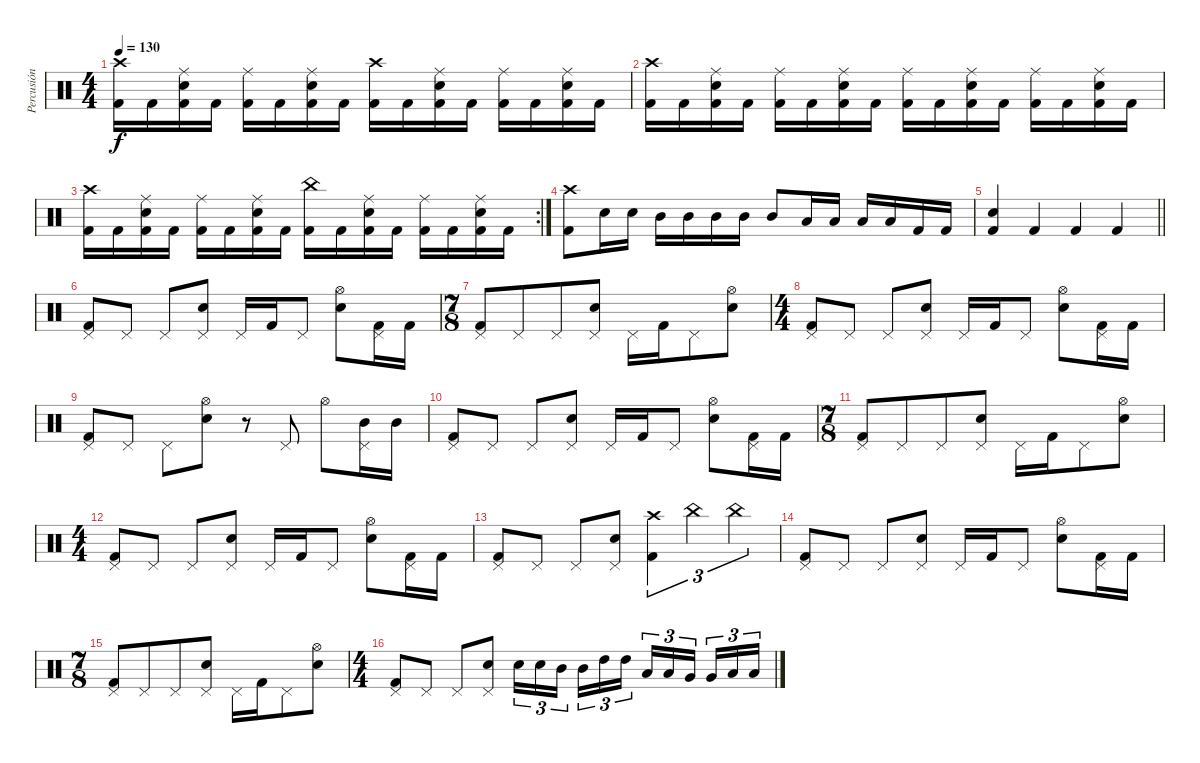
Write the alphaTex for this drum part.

\track ("Percusión" "Percusión") {instrument percussion}
\staff {score}
\articulation defaults
\ts (4 4)
\tempo 130
\clef neutral
\ks c
("Crash high (hit)" "Kick (hit) 2").16{dy f} "Kick (hit) 2".16 ("Ride (middle)" "Snare (hit) 2" "Kick (hit) 2").16 "Kick (hit) 2".16 ("Ride (middle)" "Kick (hit) 2").16 "Kick (hit) 2".16 ("Ride (middle)" "Snare (hit) 2" "Kick (hit) 2").16 "Kick (hit) 2".16 ("Crash high (hit)" "Kick (hit) 2").16 "Kick (hit) 2".16 ("Ride (middle)" "Snare (hit) 2" "Kick (hit) 2").16 "Kick (hit) 2".16 ("Ride (middle)" "Kick (hit) 2").16 "Kick (hit) 2".16 ("Ride (middle)" "Snare (hit) 2" "Kick (hit) 2").16 "Kick (hit) 2".16 |
("Crash high (hit)" "Kick (hit) 2").16 "Kick (hit) 2".16 ("Ride (middle)" "Snare (hit) 2" "Kick (hit) 2").16 "Kick (hit) 2".16 ("Ride (middle)" "Kick (hit) 2").16 "Kick (hit) 2".16 ("Ride (middle)" "Snare (hit) 2" "Kick (hit) 2").16 "Kick (hit) 2".16 ("Ride (middle)" "Kick (hit) 2").16 "Kick (hit) 2".16 ("Ride (middle)" "Snare (hit) 2" "Kick (hit) 2").16 "Kick (hit) 2".16 ("Ride (middle)" "Kick (hit) 2").16 "Kick (hit) 2".16 ("Ride (middle)" "Snare (hit) 2" "Kick (hit) 2").16 "Kick (hit) 2".16 |
\rc 2
("Crash high (hit)" "Kick (hit) 2").16 "Kick (hit) 2".16 ("Ride (middle)" "Snare (hit) 2" "Kick (hit) 2").16 "Kick (hit) 2".16 ("Ride (middle)" "Kick (hit) 2").16 "Kick (hit) 2".16 ("Ride (middle)" "Snare (hit) 2" "Kick (hit) 2").16 "Kick (hit) 2".16 ("China (hit)" "Kick (hit) 2").16 "Kick (hit) 2".16 ("Ride (middle)" "Snare (hit) 2" "Kick (hit) 2").16 "Kick (hit) 2".16 ("Ride (middle)" "Kick (hit) 2").16 "Kick (hit) 2".16 ("Ride (middle)" "Snare (hit) 2" "Kick (hit) 2").16 "Kick (hit) 2".16 |
("Crash high (hit)" "Kick (hit) 2").8 "Snare (hit) 2".16 "Snare (hit) 2".16 "Mid Tom (hit)".16 "Mid Tom (hit)".16 "Mid Tom (hit)".16 "Mid Tom (hit)".16 "Mid Tom (hit)".8 "Low Tom (hit)".16 "Low Tom (hit)".16 "Low Tom (hit)".16 "Low Tom (hit)".16 "Kick (hit) 2".16 "Kick (hit) 2".16 |
\barLineRight lightlight
("Snare (hit) 2" "Kick (hit) 2").4 "Kick (hit) 2".4 "Kick (hit) 2".4 "Kick (hit) 2".4 |
("Pedal Hi-Hat (hit)" "Kick (hit) 2").8 "Pedal Hi-Hat (hit)".8 "Pedal Hi-Hat (hit)".8 ("Pedal Hi-Hat (hit)" "Snare (hit) 2").8 "Pedal Hi-Hat (hit)".16 "Kick (hit) 2".16 "Pedal Hi-Hat (hit)".8 ("Hi-Hat (open)" "Snare (hit) 2").8 ("Pedal Hi-Hat (hit)" "Kick (hit) 2").16 "Kick (hit) 2".16 |
\ts (7 8)
("Pedal Hi-Hat (hit)" "Kick (hit) 2").8 "Pedal Hi-Hat (hit)".8 "Pedal Hi-Hat (hit)".8 ("Pedal Hi-Hat (hit)" "Snare (hit) 2").8 "Pedal Hi-Hat (hit)".16 "Kick (hit) 2".16 "Pedal Hi-Hat (hit)".8 ("Hi-Hat (open)" "Snare (hit) 2").8 |
\ts (4 4)
("Pedal Hi-Hat (hit)" "Kick (hit) 2").8 "Pedal Hi-Hat (hit)".8 "Pedal Hi-Hat (hit)".8 ("Pedal Hi-Hat (hit)" "Snare (hit) 2").8 "Pedal Hi-Hat (hit)".16 "Kick (hit) 2".16 "Pedal Hi-Hat (hit)".8 ("Hi-Hat (open)" "Snare (hit) 2").8 ("Pedal Hi-Hat (hit)" "Kick (hit) 2").16 "Kick (hit) 2".16 |
("Pedal Hi-Hat (hit)" "Kick (hit) 2").8 "Pedal Hi-Hat (hit)".8 "Pedal Hi-Hat (hit)".8 ("Hi-Hat (open)" "Snare (hit) 2").8 r.8 "Pedal Hi-Hat (hit)".8 "Hi-Hat (open)".8 ("Pedal Hi-Hat (hit)" "Mid Tom (hit)").16 "Mid Tom (hit)".16 |
("Pedal Hi-Hat (hit)" "Kick (hit) 2").8 "Pedal Hi-Hat (hit)".8 "Pedal Hi-Hat (hit)".8 ("Pedal Hi-Hat (hit)" "Snare (hit) 2").8 "Pedal Hi-Hat (hit)".16 "Kick (hit) 2".16 "Pedal Hi-Hat (hit)".8 ("Hi-Hat (open)" "Snare (hit) 2").8 ("Pedal Hi-Hat (hit)" "Kick (hit) 2").16 "Kick (hit) 2".16 |
\ts (7 8)
("Pedal Hi-Hat (hit)" "Kick (hit) 2").8 "Pedal Hi-Hat (hit)".8 "Pedal Hi-Hat (hit)".8 ("Pedal Hi-Hat (hit)" "Snare (hit) 2").8 "Pedal Hi-Hat (hit)".16 "Kick (hit) 2".16 "Pedal Hi-Hat (hit)".8 ("Hi-Hat (open)" "Snare (hit) 2").8 |
\ts (4 4)
("Pedal Hi-Hat (hit)" "Kick (hit) 2").8 "Pedal Hi-Hat (hit)".8 "Pedal Hi-Hat (hit)".8 ("Pedal Hi-Hat (hit)" "Snare (hit) 2").8 "Pedal Hi-Hat (hit)".16 "Kick (hit) 2".16 "Pedal Hi-Hat (hit)".8 ("Hi-Hat (open)" "Snare (hit) 2").8 ("Pedal Hi-Hat (hit)" "Kick (hit) 2").16 "Kick (hit) 2".16 |
("Pedal Hi-Hat (hit)" "Kick (hit) 2").8 "Pedal Hi-Hat (hit)".8 "Pedal Hi-Hat (hit)".8 ("Pedal Hi-Hat (hit)" "Snare (hit) 2").8 ("Crash high (hit)" "Kick (hit) 2").4{tu (3 2)} "China (hit)".4{tu (3 2)} "China (hit)".4{tu (3 2)} |
("Pedal Hi-Hat (hit)" "Kick (hit) 2").8 "Pedal Hi-Hat (hit)".8 "Pedal Hi-Hat (hit)".8 ("Pedal Hi-Hat (hit)" "Snare (hit) 2").8 "Pedal Hi-Hat (hit)".16 "Kick (hit) 2".16 "Pedal Hi-Hat (hit)".8 ("Hi-Hat (open)" "Snare (hit) 2").8 ("Pedal Hi-Hat (hit)" "Kick (hit) 2").16 "Kick (hit) 2".16 |
\ts (7 8)
("Pedal Hi-Hat (hit)" "Kick (hit) 2").8 "Pedal Hi-Hat (hit)".8 "Pedal Hi-Hat (hit)".8 ("Pedal Hi-Hat (hit)" "Snare (hit) 2").8 "Pedal Hi-Hat (hit)".16 "Kick (hit) 2".16 "Pedal Hi-Hat (hit)".8 ("Hi-Hat (open)" "Snare (hit) 2").8 |
\ts (4 4)
("Pedal Hi-Hat (hit)" "Kick (hit) 2").8 "Pedal Hi-Hat (hit)".8 "Pedal Hi-Hat (hit)".8 ("Pedal Hi-Hat (hit)" "Snare (hit) 2").8 "Snare (hit) 2".16{tu (3 2)} "Snare (hit) 2".16{tu (3 2)} "Mid Tom (hit)".16{tu (3 2) beam splitsecondary} "Mid Tom (hit)".16{tu (3 2)} "High Tom (hit)".16{tu (3 2)} "High Tom (hit)".16{tu (3 2)} "Low Tom (hit)".16{tu (3 2)} "Low Tom (hit)".16{tu (3 2)} "Very Low Tom (hit)".16{tu (3 2) beam splitsecondary} "Very Low Tom (hit)".16{tu (3 2)} "Low Floor Tom (hit)".16{tu (3 2)} "Low Floor Tom (hit)".16{tu (3 2)}
